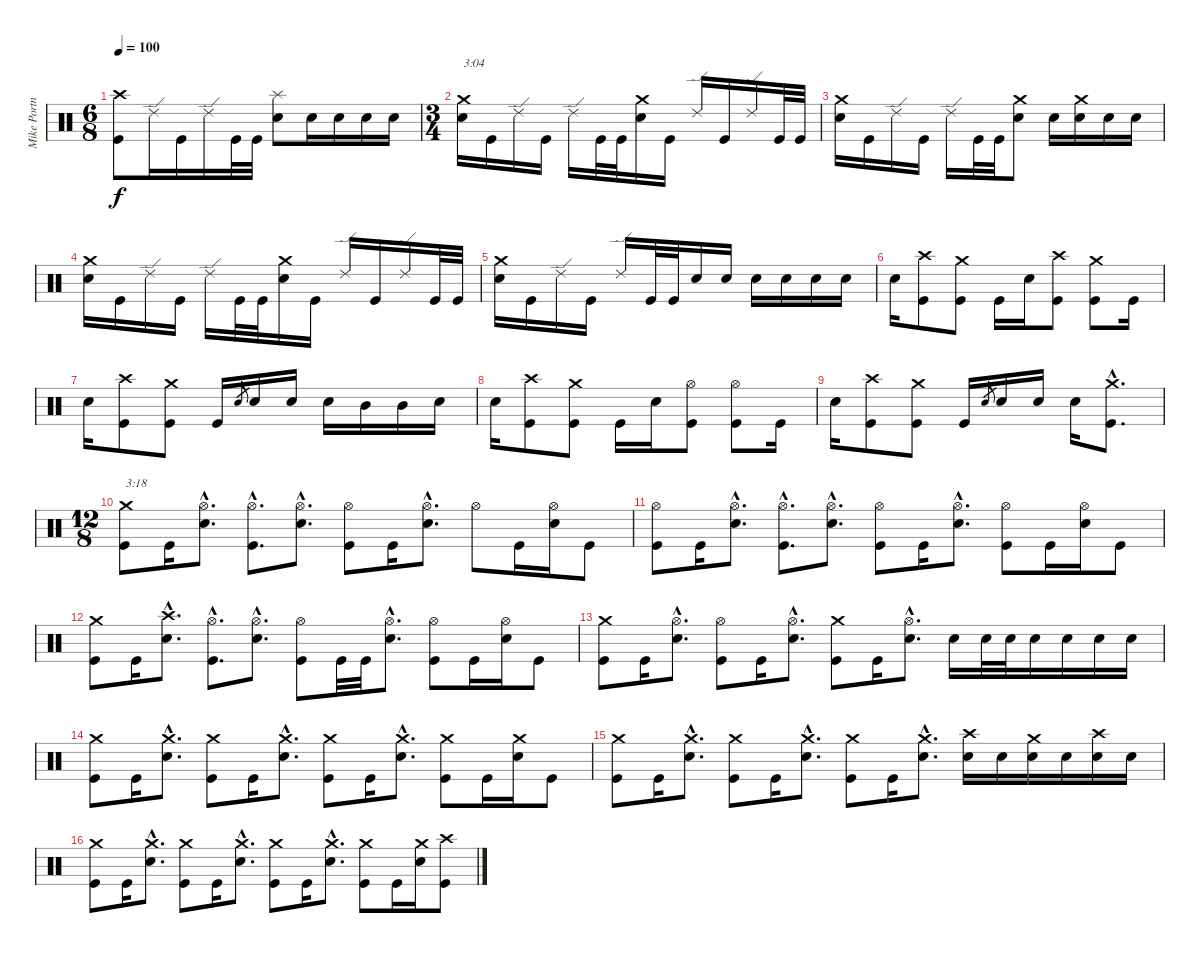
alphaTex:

\track ("Mike Portnoy" "Mike Portn") {instrument percussion}
\staff {score}
\articulation defaults
\ts (6 8)
\tempo 100
\clef neutral
\ks c
("Crash high (hit)" "Kick (hit)").8{dy f} "Ride (edge) 2".16 "Kick (hit)".16 "Ride (edge) 2".16 "Kick (hit)".32 "Kick (hit)".32 ("Splash (hit)" "Snare (hit) 2").8 "Snare (hit) 2".16 "Snare (hit) 2".16 "Snare (hit) 2".16 "Snare (hit) 2".16 |
\ts (3 4)
\section ("" "")
("Crash medium (hit)" "Snare (hit) 2").16{txt "3:04"} "Kick (hit)".16 "Ride (edge) 2".16 "Kick (hit)".16 "Ride (edge) 2".16 "Kick (hit)".32 "Kick (hit)".32 ("Crash medium (hit)" "Snare (hit) 2").16 "Kick (hit)".16 "Ride (edge) 2".16 "Kick (hit)".16 "Ride (edge) 2".16 "Kick (hit)".32 "Kick (hit)".32 |
("Crash medium (hit)" "Snare (hit) 2").16 "Kick (hit)".16 "Ride (edge) 2".16 "Kick (hit)".16 "Ride (edge) 2".16 "Kick (hit)".32 "Kick (hit)".32 ("Crash medium (hit)" "Snare (hit) 2").8 "Snare (hit) 2".16 ("Crash medium (hit)" "Snare (hit) 2").16 "Snare (hit) 2".16 "Snare (hit) 2".16 |
("Crash medium (hit)" "Snare (hit) 2").16 "Kick (hit)".16 "Ride (edge) 2".16 "Kick (hit)".16 "Ride (edge) 2".16 "Kick (hit)".32 "Kick (hit)".32 ("Crash medium (hit)" "Snare (hit) 2").16 "Kick (hit)".16 "Ride (edge) 2".16 "Kick (hit)".16 "Ride (edge) 2".16 "Kick (hit)".32 "Kick (hit)".32 |
("Crash medium (hit)" "Snare (hit) 2").16 "Kick (hit)".16 "Ride (edge) 2".16 "Kick (hit)".16 "Ride (edge) 2".16 "Kick (hit)".32 "Kick (hit)".32 "Snare (hit) 2".16 "Snare (hit) 2".16 "Snare (hit) 2".16 "Snare (hit) 2".16 "Snare (hit) 2".16 "Snare (hit) 2".16 |
"Snare (hit) 2".16 ("Crash high (hit)" "Kick (hit)").8 ("Crash medium (hit)" "Kick (hit)").8 "Kick (hit)".16 "Snare (hit) 2".16 ("Crash high (hit)" "Kick (hit)").8 ("Crash medium (hit)" "Kick (hit)").8 "Kick (hit)".16 |
"Snare (hit) 2".16 ("Crash high (hit)" "Kick (hit)").8 ("Crash medium (hit)" "Kick (hit)").8 "Kick (hit)".16 "Snare (hit) 2".8{gr} "Snare (hit) 2".16 "Snare (hit) 2".16 "Snare (hit) 2".16 "Mid Tom (hit)".16 "Mid Tom (hit)".16 "Snare (hit) 2".16 |
"Snare (hit) 2".16 ("Crash high (hit)" "Kick (hit)").8 ("Crash medium (hit)" "Kick (hit)").8 "Kick (hit)".16 "Snare (hit) 2".16 ("Hi-Hat (open)" "Kick (hit)").8 ("Hi-Hat (open)" "Kick (hit)").8 "Kick (hit)".16 |
"Snare (hit) 2".16 ("Crash high (hit)" "Kick (hit)").8 ("Crash medium (hit)" "Kick (hit)").8 "Kick (hit)".16 "Snare (hit) 2".8{gr} "Snare (hit) 2".16 "Snare (hit) 2".16 "Snare (hit) 2".16 ("Crash medium (hit)"{hac} "Kick (hit)"{hac}).8{d} |
\ts (12 8)
\section ("" "")
("Crash medium (hit)" "Kick (hit)").8{txt "3:18"} "Kick (hit)".16 ("Hi-Hat (open)"{hac} "Snare (hit) 2"{hac}).8{d} ("Hi-Hat (open)"{hac} "Kick (hit)"{hac}).8{d} ("Hi-Hat (open)"{hac} "Snare (hit) 2"{hac}).8{d} ("Hi-Hat (open)" "Kick (hit)").8 "Kick (hit)".16 ("Hi-Hat (open)"{hac} "Snare (hit) 2"{hac}).8{d} "Hi-Hat (open)".8 "Kick (hit)".16 ("Hi-Hat (open)" "Snare (hit) 2").16 "Kick (hit)".8 |
("Hi-Hat (open)" "Kick (hit)").8 "Kick (hit)".16 ("Hi-Hat (open)"{hac} "Snare (hit) 2"{hac}).8{d} ("Hi-Hat (open)"{hac} "Kick (hit)"{hac}).8{d} ("Hi-Hat (open)"{hac} "Snare (hit) 2"{hac}).8{d} ("Hi-Hat (open)" "Kick (hit)").8 "Kick (hit)".16 ("Hi-Hat (open)"{hac} "Snare (hit) 2"{hac}).8{d} ("Hi-Hat (open)" "Kick (hit)").8 "Kick (hit)".16 ("Hi-Hat (open)" "Snare (hit) 2").16 "Kick (hit)".8 |
("Crash medium (hit)" "Kick (hit)").8 "Kick (hit)".16 ("Crash high (hit)"{hac} "Snare (hit) 2"{hac}).8{d} ("Hi-Hat (open)"{hac} "Kick (hit)"{hac}).8{d} ("Hi-Hat (open)"{hac} "Snare (hit) 2"{hac}).8{d} ("Hi-Hat (open)" "Kick (hit)").8 "Kick (hit)".32 "Kick (hit)".32 ("Hi-Hat (open)"{hac} "Snare (hit) 2"{hac}).8{d} ("Hi-Hat (open)" "Kick (hit)").8 "Kick (hit)".16 ("Hi-Hat (open)" "Snare (hit) 2").16 "Kick (hit)".8 |
("Crash medium (hit)" "Kick (hit)").8 "Kick (hit)".16 ("Hi-Hat (open)"{hac} "Snare (hit) 2"{hac}).8{d} ("Hi-Hat (open)" "Kick (hit)").8 "Kick (hit)".16 ("Hi-Hat (open)"{hac} "Snare (hit) 2"{hac}).8{d} ("Crash medium (hit)" "Kick (hit)").8 "Kick (hit)".16 ("Hi-Hat (open)"{hac} "Snare (hit) 2"{hac}).8{d} "Snare (hit) 2".16 "Snare (hit) 2".32 "Snare (hit) 2".32 "Snare (hit) 2".16 "Snare (hit) 2".16 "Snare (hit) 2".16 "Snare (hit) 2".16 |
\section ("" "")
("Crash medium (hit)" "Kick (hit)").8 "Kick (hit)".16 ("Crash medium (hit)"{hac} "Snare (hit) 2"{hac}).8{d} ("Crash medium (hit)" "Kick (hit)").8 "Kick (hit)".16 ("Crash medium (hit)"{hac} "Snare (hit) 2"{hac}).8{d} ("Crash medium (hit)" "Kick (hit)").8 "Kick (hit)".16 ("Crash medium (hit)"{hac} "Snare (hit) 2"{hac}).8{d} ("Crash medium (hit)" "Kick (hit)").8 "Kick (hit)".16 ("Crash medium (hit)" "Snare (hit) 2").16 "Kick (hit)".8 |
("Crash medium (hit)" "Kick (hit)").8 "Kick (hit)".16 ("Crash medium (hit)"{hac} "Snare (hit) 2"{hac}).8{d} ("Crash medium (hit)" "Kick (hit)").8 "Kick (hit)".16 ("Crash medium (hit)"{hac} "Snare (hit) 2"{hac}).8{d} ("Crash medium (hit)" "Kick (hit)").8 "Kick (hit)".16 ("Crash medium (hit)"{hac} "Snare (hit) 2"{hac}).8{d} ("Crash high (hit)" "Snare (hit) 2").16 "Snare (hit) 2".16 ("Crash medium (hit)" "Snare (hit) 2").16 "Snare (hit) 2".16 ("Crash high (hit)" "Snare (hit) 2").16 "Snare (hit) 2".16 |
("Crash medium (hit)" "Kick (hit)").8 "Kick (hit)".16 ("Crash medium (hit)"{hac} "Snare (hit) 2"{hac}).8{d} ("Crash medium (hit)" "Kick (hit)").8 "Kick (hit)".16 ("Crash medium (hit)"{hac} "Snare (hit) 2"{hac}).8{d} ("Crash medium (hit)" "Kick (hit)").8 "Kick (hit)".16 ("Crash medium (hit)"{hac} "Snare (hit) 2"{hac}).8{d} ("Crash medium (hit)" "Kick (hit)").8 "Kick (hit)".16 ("Crash medium (hit)" "Snare (hit) 2").16 ("Crash high (hit)" "Kick (hit)").8
